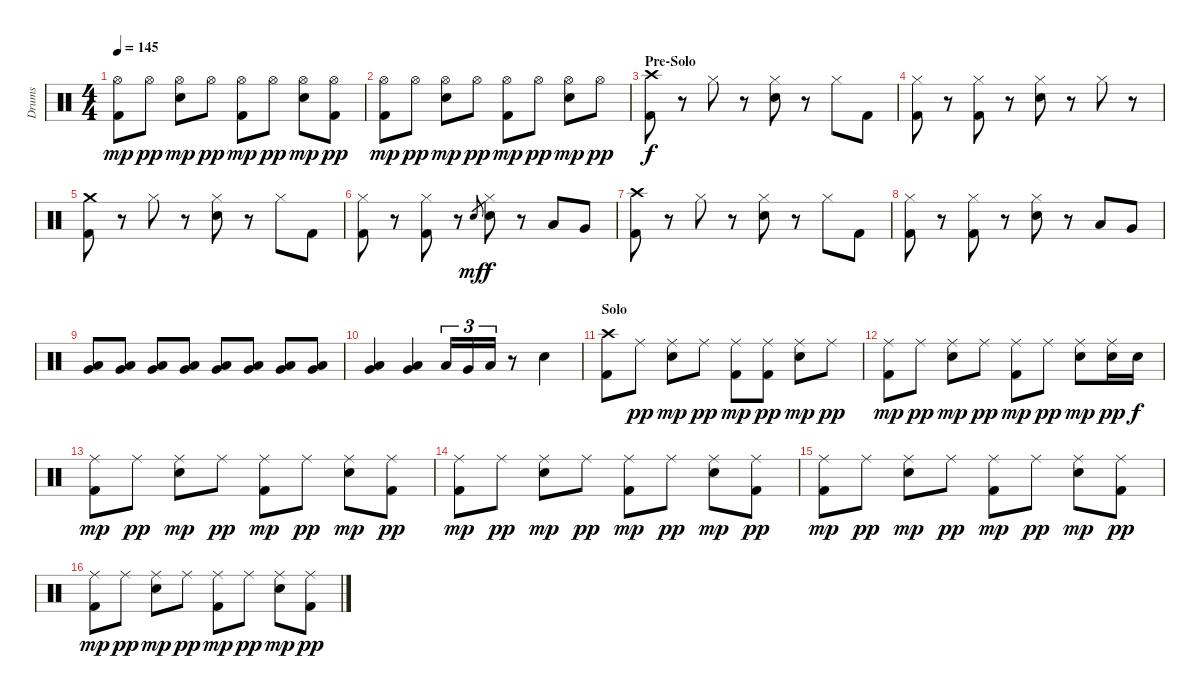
\track ("Drums" "Drums") {instrument percussion}
\staff {score}
\articulation defaults
\ts (4 4)
\tempo 145
\clef neutral
\ks c
("Hi-Hat (open)" "Kick (hit) 2").8{dy mp} "Hi-Hat (open)".8{dy pp} ("Hi-Hat (open)" "Snare (hit) 2").8{dy mp} "Hi-Hat (open)".8{dy pp} ("Hi-Hat (open)" "Kick (hit) 2").8{dy mp} "Hi-Hat (open)".8{dy pp} ("Hi-Hat (open)" "Snare (hit) 2").8{dy mp} ("Hi-Hat (open)" "Kick (hit) 2").8{dy pp} |
("Hi-Hat (open)" "Kick (hit) 2").8{dy mp} "Hi-Hat (open)".8{dy pp} ("Hi-Hat (open)" "Snare (hit) 2").8{dy mp} "Hi-Hat (open)".8{dy pp} ("Hi-Hat (open)" "Kick (hit) 2").8{dy mp} "Hi-Hat (open)".8{dy pp} ("Hi-Hat (open)" "Snare (hit) 2").8{dy mp} "Hi-Hat (open)".8{dy pp} |
\section ("" "Pre-Solo")
("Crash high (hit)" "Kick (hit) 2").8{dy f} r.8 "Hi-Hat (closed)".8 r.8 ("Hi-Hat (closed)" "Snare (hit) 2").8 r.8 "Hi-Hat (closed)".8 "Kick (hit) 2".8 |
("Hi-Hat (closed)" "Kick (hit) 2").8 r.8 ("Hi-Hat (closed)" "Kick (hit) 2").8 r.8 ("Hi-Hat (closed)" "Snare (hit) 2").8 r.8 "Hi-Hat (closed)".8 r.8 |
("Crash medium (hit)" "Kick (hit) 2").8 r.8 "Hi-Hat (closed)".8 r.8 ("Hi-Hat (closed)" "Snare (hit) 2").8 r.8 "Hi-Hat (closed)".8 "Kick (hit) 2".8 |
("Hi-Hat (closed)" "Kick (hit) 2").8 r.8 ("Hi-Hat (closed)" "Kick (hit) 2").8 r.8 "Snare (hit) 2".8{gr dy mf} ("Hi-Hat (closed)" "Snare (hit) 2").8{dy f} r.8 "Low Tom (hit)".8 "Very Low Tom (hit)".8 |
("Crash high (hit)" "Kick (hit) 2").8 r.8 "Hi-Hat (closed)".8 r.8 ("Hi-Hat (closed)" "Snare (hit) 2").8 r.8 "Hi-Hat (closed)".8 "Kick (hit) 2".8 |
("Hi-Hat (closed)" "Kick (hit) 2").8 r.8 ("Hi-Hat (closed)" "Kick (hit) 2").8 r.8 ("Hi-Hat (closed)" "Snare (hit) 2").8 r.8 "Low Tom (hit)".8 "Very Low Tom (hit)".8 |
("Low Tom (hit)" "Very Low Tom (hit)").8 ("Low Tom (hit)" "Very Low Tom (hit)").8 ("Low Tom (hit)" "Very Low Tom (hit)").8 ("Low Tom (hit)" "Very Low Tom (hit)").8 ("Low Tom (hit)" "Very Low Tom (hit)").8 ("Low Tom (hit)" "Very Low Tom (hit)").8 ("Low Tom (hit)" "Very Low Tom (hit)").8 ("Low Tom (hit)" "Very Low Tom (hit)").8 |
("Low Tom (hit)" "Very Low Tom (hit)").4 ("Very Low Tom (hit)" "Low Floor Tom (hit)").4 "Low Tom (hit)".16{tu (3 2)} "Very Low Tom (hit)".16{tu (3 2)} "Low Floor Tom (hit)".16{tu (3 2)} r.8 "Snare (hit) 2".4 |
\section ("" "Solo")
("Crash high (hit)" "Kick (hit) 2").8 "Ride (middle)".8{dy pp} ("Ride (middle)" "Snare (hit) 2").8{dy mp} "Ride (middle)".8{dy pp} ("Ride (middle)" "Kick (hit) 2").8{dy mp} ("Ride (middle)" "Kick (hit) 2").8{dy pp} ("Ride (middle)" "Snare (hit) 2").8{dy mp} "Ride (middle)".8{dy pp} |
("Ride (middle)" "Kick (hit) 2").8{dy mp} "Ride (middle)".8{dy pp} ("Ride (middle)" "Snare (hit) 2").8{dy mp} "Ride (middle)".8{dy pp} ("Ride (middle)" "Kick (hit) 2").8{dy mp} "Ride (middle)".8{dy pp} ("Ride (middle)" "Snare (hit) 2").8{dy mp} ("Ride (middle)" "Snare (hit) 2").16{dy pp} "Snare (hit) 2".16{dy f} |
("Ride (middle)" "Kick (hit) 2").8{dy mp} "Ride (middle)".8{dy pp} ("Ride (middle)" "Snare (hit) 2").8{dy mp} "Ride (middle)".8{dy pp} ("Ride (middle)" "Kick (hit) 2").8{dy mp} "Ride (middle)".8{dy pp} ("Ride (middle)" "Snare (hit) 2").8{dy mp} ("Ride (middle)" "Kick (hit) 2").8{dy pp} |
("Ride (middle)" "Kick (hit) 2").8{dy mp} "Ride (middle)".8{dy pp} ("Ride (middle)" "Snare (hit) 2").8{dy mp} "Ride (middle)".8{dy pp} ("Ride (middle)" "Kick (hit) 2").8{dy mp} "Ride (middle)".8{dy pp} ("Ride (middle)" "Snare (hit) 2").8{dy mp} ("Ride (middle)" "Kick (hit) 2").8{dy pp} |
("Ride (middle)" "Kick (hit) 2").8{dy mp} "Ride (middle)".8{dy pp} ("Ride (middle)" "Snare (hit) 2").8{dy mp} "Ride (middle)".8{dy pp} ("Ride (middle)" "Kick (hit) 2").8{dy mp} "Ride (middle)".8{dy pp} ("Ride (middle)" "Snare (hit) 2").8{dy mp} ("Ride (middle)" "Kick (hit) 2").8{dy pp} |
("Ride (middle)" "Kick (hit) 2").8{dy mp} "Ride (middle)".8{dy pp} ("Ride (middle)" "Snare (hit) 2").8{dy mp} "Ride (middle)".8{dy pp} ("Ride (middle)" "Kick (hit) 2").8{dy mp} "Ride (middle)".8{dy pp} ("Ride (middle)" "Snare (hit) 2").8{dy mp} ("Ride (middle)" "Kick (hit) 2").8{dy pp}
